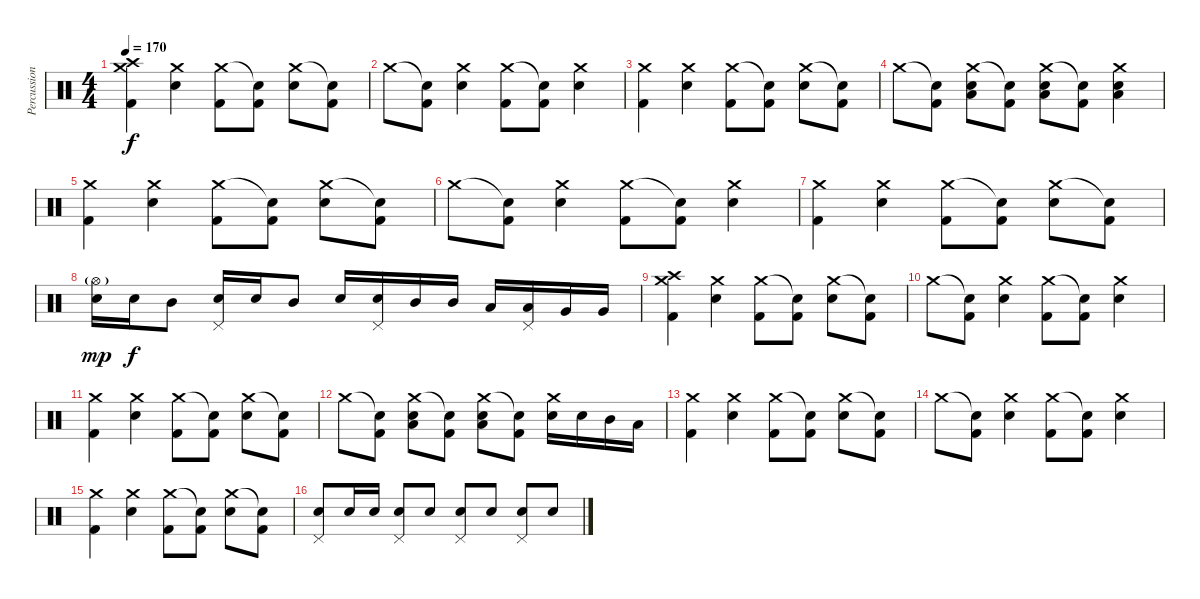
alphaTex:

\track ("Percussion" "Percussion") {instrument percussion}
\staff {score}
\articulation defaults
\ts (4 4)
\tempo 170
\clef neutral
\ks c
("Crash medium (hit)" "Crash high (hit)" "Kick (hit) 2").4{dy f} ("Crash medium (hit)" "Electric Snare (hit)").4 ("Crash medium (hit)" "Kick (hit) 2").8 ("Snare (hit)"{t} "Kick (hit) 2").8 ("Crash medium (hit)" "Electric Snare (hit)").8 ("Snare (hit)"{t} "Kick (hit) 2").8 |
"Crash medium (hit)".8 ("Snare (hit)"{t} "Kick (hit) 2").8 ("Crash medium (hit)" "Electric Snare (hit)").4 ("Crash medium (hit)" "Kick (hit) 2").8 ("Snare (hit)"{t} "Kick (hit) 2").8 ("Crash medium (hit)" "Electric Snare (hit)").4 |
("Crash medium (hit)" "Kick (hit) 2").4 ("Crash medium (hit)" "Electric Snare (hit)").4 ("Crash medium (hit)" "Kick (hit) 2").8 ("Snare (hit)"{t} "Kick (hit) 2").8 ("Crash medium (hit)" "Electric Snare (hit)").8 ("Snare (hit)"{t} "Kick (hit) 2").8 |
"Crash medium (hit)".8 ("Snare (hit)"{t} "Kick (hit) 2").8 ("Crash medium (hit)" "Low Floor Tom (hit)" "Electric Snare (hit)").8 ("Snare (hit)"{t} "Kick (hit) 2").8 ("Crash medium (hit)" "Low Floor Tom (hit)" "Electric Snare (hit)").8 ("Snare (hit)"{t} "Kick (hit) 2").8 ("Crash medium (hit)" "Low Floor Tom (hit)" "Electric Snare (hit)").4 |
("Crash medium (hit)" "Kick (hit) 2").4 ("Crash medium (hit)" "Electric Snare (hit)").4 ("Crash medium (hit)" "Kick (hit) 2").8 ("Snare (hit)"{t} "Kick (hit) 2").8 ("Crash medium (hit)" "Electric Snare (hit)").8 ("Snare (hit)"{t} "Kick (hit) 2").8 |
"Crash medium (hit)".8 ("Snare (hit)"{t} "Kick (hit) 2").8 ("Crash medium (hit)" "Electric Snare (hit)").4 ("Crash medium (hit)" "Kick (hit) 2").8 ("Snare (hit)"{t} "Kick (hit) 2").8 ("Crash medium (hit)" "Electric Snare (hit)").4 |
("Crash medium (hit)" "Kick (hit) 2").4 ("Crash medium (hit)" "Electric Snare (hit)").4 ("Crash medium (hit)" "Kick (hit) 2").8 ("Snare (hit)"{t} "Kick (hit) 2").8 ("Crash medium (hit)" "Electric Snare (hit)").8 ("Snare (hit)"{t} "Kick (hit) 2").8 |
("Hi-Hat (open)"{g} "Electric Snare (hit)").16{dy mp} "Electric Snare (hit)".16{dy f} "Mid Tom (hit)".8 ("Pedal Hi-Hat (hit)" "Electric Snare (hit)").16 "Electric Snare (hit)".16 "Mid Tom (hit)".8 "Electric Snare (hit)".16 ("Pedal Hi-Hat (hit)" "Electric Snare (hit)").16 "Mid Tom (hit)".16 "Mid Tom (hit)".16 "Low Tom (hit)".16 ("Pedal Hi-Hat (hit)" "Low Tom (hit)").16 "Very Low Tom (hit)".16 "Very Low Tom (hit)".16 |
("Crash medium (hit)" "Crash high (hit)" "Kick (hit) 2").4 ("Crash medium (hit)" "Electric Snare (hit)").4 ("Crash medium (hit)" "Kick (hit) 2").8 ("Snare (hit)"{t} "Kick (hit) 2").8 ("Crash medium (hit)" "Electric Snare (hit)").8 ("Snare (hit)"{t} "Kick (hit) 2").8 |
"Crash medium (hit)".8 ("Snare (hit)"{t} "Kick (hit) 2").8 ("Crash medium (hit)" "Electric Snare (hit)").4 ("Crash medium (hit)" "Kick (hit) 2").8 ("Snare (hit)"{t} "Kick (hit) 2").8 ("Crash medium (hit)" "Electric Snare (hit)").4 |
("Crash medium (hit)" "Kick (hit) 2").4 ("Crash medium (hit)" "Electric Snare (hit)").4 ("Crash medium (hit)" "Kick (hit) 2").8 ("Snare (hit)"{t} "Kick (hit) 2").8 ("Crash medium (hit)" "Electric Snare (hit)").8 ("Snare (hit)"{t} "Kick (hit) 2").8 |
"Crash medium (hit)".8 ("Snare (hit)"{t} "Kick (hit) 2").8 ("Crash medium (hit)" "Low Floor Tom (hit)" "Electric Snare (hit)").8 ("Snare (hit)"{t} "Kick (hit) 2").8 ("Crash medium (hit)" "Low Floor Tom (hit)" "Electric Snare (hit)").8 ("Snare (hit)"{t} "Kick (hit) 2").8 ("Crash medium (hit)" "Electric Snare (hit)").16 "Electric Snare (hit)".16 "Mid Tom (hit)".16 "Low Tom (hit)".16 |
("Crash medium (hit)" "Kick (hit) 2").4 ("Crash medium (hit)" "Electric Snare (hit)").4 ("Crash medium (hit)" "Kick (hit) 2").8 ("Snare (hit)"{t} "Kick (hit) 2").8 ("Crash medium (hit)" "Electric Snare (hit)").8 ("Snare (hit)"{t} "Kick (hit) 2").8 |
"Crash medium (hit)".8 ("Snare (hit)"{t} "Kick (hit) 2").8 ("Crash medium (hit)" "Electric Snare (hit)").4 ("Crash medium (hit)" "Kick (hit) 2").8 ("Snare (hit)"{t} "Kick (hit) 2").8 ("Crash medium (hit)" "Electric Snare (hit)").4 |
("Crash medium (hit)" "Kick (hit) 2").4 ("Crash medium (hit)" "Electric Snare (hit)").4 ("Crash medium (hit)" "Kick (hit) 2").8 ("Snare (hit)"{t} "Kick (hit) 2").8 ("Crash medium (hit)" "Electric Snare (hit)").8 ("Snare (hit)"{t} "Kick (hit) 2").8 |
("Pedal Hi-Hat (hit)" "Electric Snare (hit)").8 "Electric Snare (hit)".16 "Electric Snare (hit)".16 ("Pedal Hi-Hat (hit)" "Electric Snare (hit)").8 "Electric Snare (hit)".8 ("Pedal Hi-Hat (hit)" "Electric Snare (hit)").8 "Electric Snare (hit)".8 ("Pedal Hi-Hat (hit)" "Electric Snare (hit)").8 "Electric Snare (hit)".8
